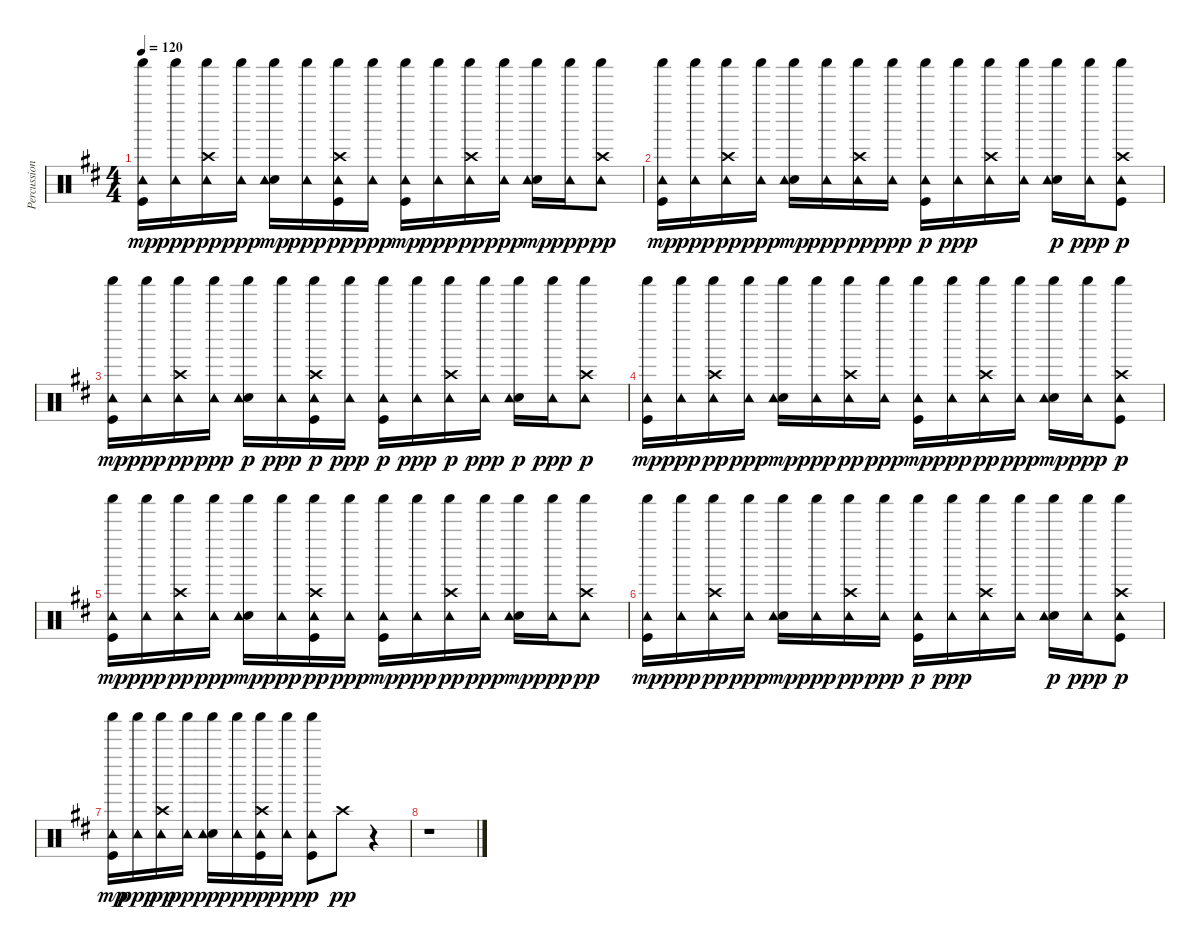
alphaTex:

\track ("Percussion" "Percussion") {instrument percussion}
\staff {score}
\articulation defaults
\ts (4 4)
\tempo 120
\clef neutral
\ks d
("Kick (hit)" "Tambourine (hit)" "Shaker (hit)").16{dy mp} ("Tambourine (hit)" "Shaker (hit)").16{dy ppp} ("Crash high (hit)" "Tambourine (hit)" "Shaker (hit)").16{dy pp} ("Tambourine (hit)" "Shaker (hit)").16{dy ppp} ("Electric Snare (hit)" "Tambourine (hit)" "Shaker (hit)").16{dy mp} ("Tambourine (hit)" "Shaker (hit)").16{dy ppp} ("Kick (hit)" "Crash high (hit)" "Tambourine (hit)" "Shaker (hit)").16{dy pp} ("Tambourine (hit)" "Shaker (hit)").16{dy ppp} ("Kick (hit)" "Tambourine (hit)" "Shaker (hit)").16{dy mp} ("Tambourine (hit)" "Shaker (hit)").16{dy ppp} ("Crash high (hit)" "Tambourine (hit)" "Shaker (hit)").16{dy pp} ("Tambourine (hit)" "Shaker (hit)").16{dy ppp} ("Electric Snare (hit)" "Tambourine (hit)" "Shaker (hit)").16{dy mp} ("Tambourine (hit)" "Shaker (hit)").16{dy ppp} ("Crash high (hit)" "Tambourine (hit)" "Shaker (hit)").8{dy pp} |
("Kick (hit)" "Tambourine (hit)" "Shaker (hit)").16{dy mp} ("Tambourine (hit)" "Shaker (hit)").16{dy ppp} ("Crash high (hit)" "Tambourine (hit)" "Shaker (hit)").16{dy pp} ("Tambourine (hit)" "Shaker (hit)").16{dy ppp} ("Electric Snare (hit)" "Tambourine (hit)" "Shaker (hit)").16{dy mp} ("Tambourine (hit)" "Shaker (hit)").16{dy ppp} ("Crash high (hit)" "Tambourine (hit)" "Shaker (hit)").16{dy pp} ("Tambourine (hit)" "Shaker (hit)").16{dy ppp} ("Kick (hit)" "Tambourine (hit)" "Shaker (hit)").16{dy p} ("Tambourine (hit)" "Shaker (hit)").16{dy ppp} ("Crash high (hit)" "Tambourine (hit)" "Shaker (hit)").16 ("Tambourine (hit)" "Shaker (hit)").16 ("Electric Snare (hit)" "Tambourine (hit)" "Shaker (hit)").16{dy p} ("Tambourine (hit)" "Shaker (hit)").16{dy ppp} ("Kick (hit)" "Crash high (hit)" "Tambourine (hit)" "Shaker (hit)").8{dy p} |
("Kick (hit)" "Tambourine (hit)" "Shaker (hit)").16{dy mp} ("Tambourine (hit)" "Shaker (hit)").16{dy ppp} ("Crash high (hit)" "Tambourine (hit)" "Shaker (hit)").16{dy pp} ("Tambourine (hit)" "Shaker (hit)").16{dy ppp} ("Electric Snare (hit)" "Tambourine (hit)" "Shaker (hit)").16{dy p} ("Tambourine (hit)" "Shaker (hit)").16{dy ppp} ("Kick (hit)" "Crash high (hit)" "Tambourine (hit)" "Shaker (hit)").16{dy p} ("Tambourine (hit)" "Shaker (hit)").16{dy ppp} ("Kick (hit)" "Tambourine (hit)" "Shaker (hit)").16{dy p} ("Tambourine (hit)" "Shaker (hit)").16{dy ppp} ("Crash high (hit)" "Tambourine (hit)" "Shaker (hit)").16{dy p} ("Tambourine (hit)" "Shaker (hit)").16{dy ppp} ("Electric Snare (hit)" "Tambourine (hit)" "Shaker (hit)").16{dy p} ("Tambourine (hit)" "Shaker (hit)").16{dy ppp} ("Crash high (hit)" "Tambourine (hit)" "Shaker (hit)").8{dy p} |
("Kick (hit)" "Tambourine (hit)" "Shaker (hit)").16{dy mp} ("Tambourine (hit)" "Shaker (hit)").16{dy ppp} ("Crash high (hit)" "Tambourine (hit)" "Shaker (hit)").16{dy pp} ("Tambourine (hit)" "Shaker (hit)").16{dy ppp} ("Electric Snare (hit)" "Tambourine (hit)" "Shaker (hit)").16{dy mp} ("Tambourine (hit)" "Shaker (hit)").16{dy ppp} ("Crash high (hit)" "Tambourine (hit)" "Shaker (hit)").16{dy pp} ("Tambourine (hit)" "Shaker (hit)").16{dy ppp} ("Kick (hit)" "Tambourine (hit)" "Shaker (hit)").16{dy mp} ("Tambourine (hit)" "Shaker (hit)").16{dy ppp} ("Crash high (hit)" "Tambourine (hit)" "Shaker (hit)").16{dy pp} ("Tambourine (hit)" "Shaker (hit)").16{dy ppp} ("Electric Snare (hit)" "Tambourine (hit)" "Shaker (hit)").16{dy mp} ("Tambourine (hit)" "Shaker (hit)").16{dy ppp} ("Kick (hit)" "Crash high (hit)" "Tambourine (hit)" "Shaker (hit)").8{dy p} |
("Kick (hit)" "Tambourine (hit)" "Shaker (hit)").16{dy mp} ("Tambourine (hit)" "Shaker (hit)").16{dy ppp} ("Crash high (hit)" "Tambourine (hit)" "Shaker (hit)").16{dy pp} ("Tambourine (hit)" "Shaker (hit)").16{dy ppp} ("Electric Snare (hit)" "Tambourine (hit)" "Shaker (hit)").16{dy mp} ("Tambourine (hit)" "Shaker (hit)").16{dy ppp} ("Kick (hit)" "Crash high (hit)" "Tambourine (hit)" "Shaker (hit)").16{dy pp} ("Tambourine (hit)" "Shaker (hit)").16{dy ppp} ("Kick (hit)" "Tambourine (hit)" "Shaker (hit)").16{dy mp} ("Tambourine (hit)" "Shaker (hit)").16{dy ppp} ("Crash high (hit)" "Tambourine (hit)" "Shaker (hit)").16{dy pp} ("Tambourine (hit)" "Shaker (hit)").16{dy ppp} ("Electric Snare (hit)" "Tambourine (hit)" "Shaker (hit)").16{dy mp} ("Tambourine (hit)" "Shaker (hit)").16{dy ppp} ("Crash high (hit)" "Tambourine (hit)" "Shaker (hit)").8{dy pp} |
("Kick (hit)" "Tambourine (hit)" "Shaker (hit)").16{dy mp} ("Tambourine (hit)" "Shaker (hit)").16{dy ppp} ("Crash high (hit)" "Tambourine (hit)" "Shaker (hit)").16{dy pp} ("Tambourine (hit)" "Shaker (hit)").16{dy ppp} ("Electric Snare (hit)" "Tambourine (hit)" "Shaker (hit)").16{dy mp} ("Tambourine (hit)" "Shaker (hit)").16{dy ppp} ("Crash high (hit)" "Tambourine (hit)" "Shaker (hit)").16{dy pp} ("Tambourine (hit)" "Shaker (hit)").16{dy ppp} ("Kick (hit)" "Tambourine (hit)" "Shaker (hit)").16{dy p} ("Tambourine (hit)" "Shaker (hit)").16{dy ppp} ("Crash high (hit)" "Tambourine (hit)" "Shaker (hit)").16 ("Tambourine (hit)" "Shaker (hit)").16 ("Electric Snare (hit)" "Tambourine (hit)" "Shaker (hit)").16{dy p} ("Tambourine (hit)" "Shaker (hit)").16{dy ppp} ("Kick (hit)" "Crash high (hit)" "Tambourine (hit)" "Shaker (hit)").8{dy p} |
("Kick (hit)" "Tambourine (hit)" "Shaker (hit)").16{dy mp} ("Tambourine (hit)" "Shaker (hit)").16{dy ppp} ("Crash high (hit)" "Tambourine (hit)" "Shaker (hit)").16{dy pp} ("Tambourine (hit)" "Shaker (hit)").16{dy ppp} ("Electric Snare (hit)" "Tambourine (hit)" "Shaker (hit)").16{dy p} ("Tambourine (hit)" "Shaker (hit)").16{dy ppp} ("Kick (hit)" "Crash high (hit)" "Tambourine (hit)" "Shaker (hit)").16{dy p} ("Tambourine (hit)" "Shaker (hit)").16{dy ppp} ("Kick (hit)" "Tambourine (hit)" "Shaker (hit)").8{dy p} "Crash high (hit)".8{dy pp} r.4 |
r.1
